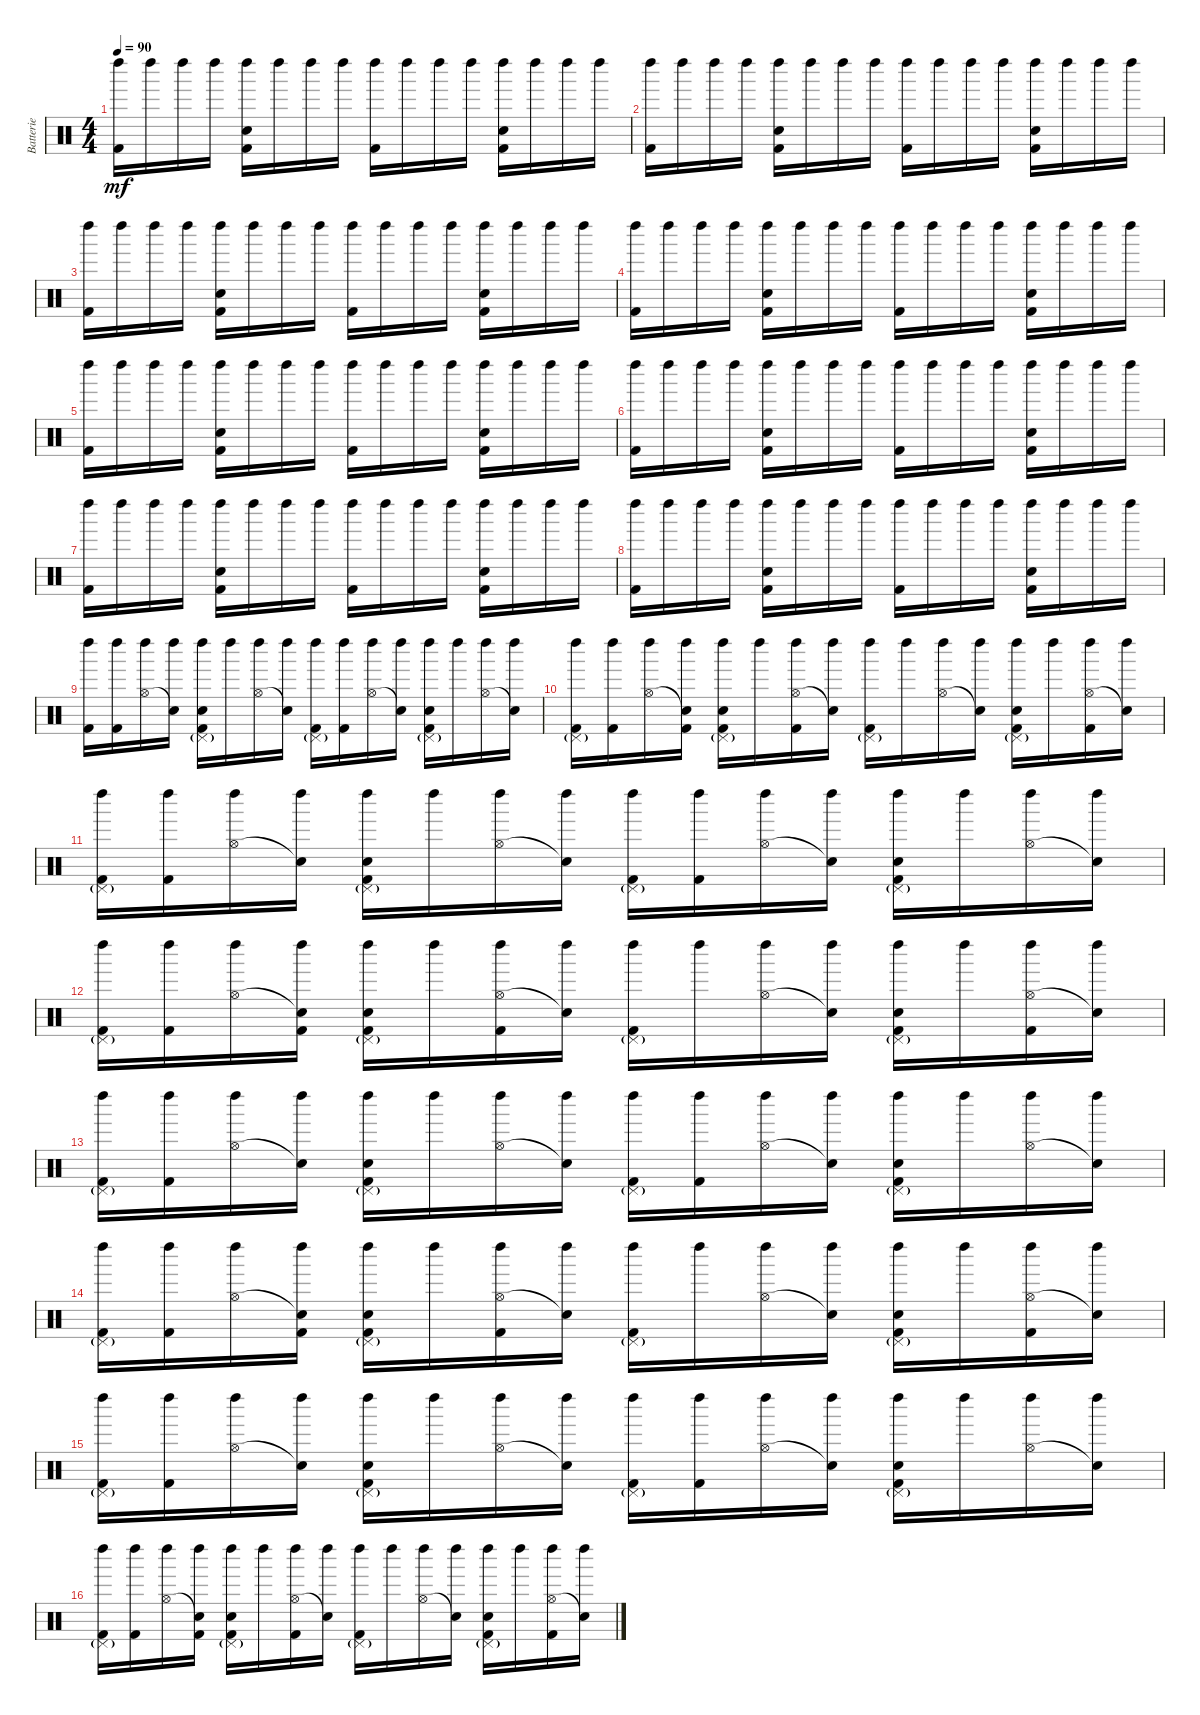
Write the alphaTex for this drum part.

\track ("Batterie" "Batterie") {instrument percussion}
\staff {score}
\articulation defaults
\ts (4 4)
\tempo 90
\clef neutral
\ks c
("Left Maraca (hit)" "Kick (hit) 2").16{dy mf} "Left Maraca (hit)".16 "Left Maraca (hit)".16 "Left Maraca (hit)".16 ("Left Maraca (hit)" "Snare (hit) 2" "Kick (hit) 2").16 "Left Maraca (hit)".16 "Left Maraca (hit)".16 "Left Maraca (hit)".16 ("Left Maraca (hit)" "Kick (hit) 2").16 "Left Maraca (hit)".16 "Left Maraca (hit)".16 "Left Maraca (hit)".16 ("Left Maraca (hit)" "Snare (hit) 2" "Kick (hit) 2").16 "Left Maraca (hit)".16 "Left Maraca (hit)".16 "Left Maraca (hit)".16 |
("Left Maraca (hit)" "Kick (hit) 2").16 "Left Maraca (hit)".16 "Left Maraca (hit)".16 "Left Maraca (hit)".16 ("Left Maraca (hit)" "Snare (hit) 2" "Kick (hit) 2").16 "Left Maraca (hit)".16 "Left Maraca (hit)".16 "Left Maraca (hit)".16 ("Left Maraca (hit)" "Kick (hit) 2").16 "Left Maraca (hit)".16 "Left Maraca (hit)".16 "Left Maraca (hit)".16 ("Left Maraca (hit)" "Snare (hit) 2" "Kick (hit) 2").16 "Left Maraca (hit)".16 "Left Maraca (hit)".16 "Left Maraca (hit)".16 |
("Left Maraca (hit)" "Kick (hit) 2").16 "Left Maraca (hit)".16 "Left Maraca (hit)".16 "Left Maraca (hit)".16 ("Left Maraca (hit)" "Snare (hit) 2" "Kick (hit) 2").16 "Left Maraca (hit)".16 "Left Maraca (hit)".16 "Left Maraca (hit)".16 ("Left Maraca (hit)" "Kick (hit) 2").16 "Left Maraca (hit)".16 "Left Maraca (hit)".16 "Left Maraca (hit)".16 ("Left Maraca (hit)" "Snare (hit) 2" "Kick (hit) 2").16 "Left Maraca (hit)".16 "Left Maraca (hit)".16 "Left Maraca (hit)".16 |
("Left Maraca (hit)" "Kick (hit) 2").16 "Left Maraca (hit)".16 "Left Maraca (hit)".16 "Left Maraca (hit)".16 ("Left Maraca (hit)" "Snare (hit) 2" "Kick (hit) 2").16 "Left Maraca (hit)".16 "Left Maraca (hit)".16 "Left Maraca (hit)".16 ("Left Maraca (hit)" "Kick (hit) 2").16 "Left Maraca (hit)".16 "Left Maraca (hit)".16 "Left Maraca (hit)".16 ("Left Maraca (hit)" "Snare (hit) 2" "Kick (hit) 2").16 "Left Maraca (hit)".16 "Left Maraca (hit)".16 "Left Maraca (hit)".16 |
("Left Maraca (hit)" "Kick (hit) 2").16 "Left Maraca (hit)".16 "Left Maraca (hit)".16 "Left Maraca (hit)".16 ("Left Maraca (hit)" "Snare (hit) 2" "Kick (hit) 2").16 "Left Maraca (hit)".16 "Left Maraca (hit)".16 "Left Maraca (hit)".16 ("Left Maraca (hit)" "Kick (hit) 2").16 "Left Maraca (hit)".16 "Left Maraca (hit)".16 "Left Maraca (hit)".16 ("Left Maraca (hit)" "Snare (hit) 2" "Kick (hit) 2").16 "Left Maraca (hit)".16 "Left Maraca (hit)".16 "Left Maraca (hit)".16 |
("Left Maraca (hit)" "Kick (hit) 2").16 "Left Maraca (hit)".16 "Left Maraca (hit)".16 "Left Maraca (hit)".16 ("Left Maraca (hit)" "Snare (hit) 2" "Kick (hit) 2").16 "Left Maraca (hit)".16 "Left Maraca (hit)".16 "Left Maraca (hit)".16 ("Left Maraca (hit)" "Kick (hit) 2").16 "Left Maraca (hit)".16 "Left Maraca (hit)".16 "Left Maraca (hit)".16 ("Left Maraca (hit)" "Snare (hit) 2" "Kick (hit) 2").16 "Left Maraca (hit)".16 "Left Maraca (hit)".16 "Left Maraca (hit)".16 |
("Left Maraca (hit)" "Kick (hit) 2").16 "Left Maraca (hit)".16 "Left Maraca (hit)".16 "Left Maraca (hit)".16 ("Left Maraca (hit)" "Snare (hit) 2" "Kick (hit) 2").16 "Left Maraca (hit)".16 "Left Maraca (hit)".16 "Left Maraca (hit)".16 ("Left Maraca (hit)" "Kick (hit) 2").16 "Left Maraca (hit)".16 "Left Maraca (hit)".16 "Left Maraca (hit)".16 ("Left Maraca (hit)" "Snare (hit) 2" "Kick (hit) 2").16 "Left Maraca (hit)".16 "Left Maraca (hit)".16 "Left Maraca (hit)".16 |
("Left Maraca (hit)" "Kick (hit) 2").16 "Left Maraca (hit)".16 "Left Maraca (hit)".16 "Left Maraca (hit)".16 ("Left Maraca (hit)" "Snare (hit) 2" "Kick (hit) 2").16 "Left Maraca (hit)".16 "Left Maraca (hit)".16 "Left Maraca (hit)".16 ("Left Maraca (hit)" "Kick (hit) 2").16 "Left Maraca (hit)".16 "Left Maraca (hit)".16 "Left Maraca (hit)".16 ("Left Maraca (hit)" "Snare (hit) 2" "Kick (hit) 2").16 "Left Maraca (hit)".16 "Left Maraca (hit)".16 "Left Maraca (hit)".16 |
("Left Maraca (hit)" "Kick (hit) 2").16 ("Left Maraca (hit)" "Kick (hit) 2").16 ("Hi-Hat (open)" "Left Maraca (hit)").16 ("Snare (hit)"{t} "Left Maraca (hit)").16 ("Pedal Hi-Hat (hit)"{g} "Left Maraca (hit)" "Snare (hit) 2" "Kick (hit) 2").16 "Left Maraca (hit)".16 ("Hi-Hat (open)" "Left Maraca (hit)").16 ("Snare (hit)"{t} "Left Maraca (hit)").16 ("Pedal Hi-Hat (hit)"{g} "Left Maraca (hit)" "Kick (hit) 2").16 ("Left Maraca (hit)" "Kick (hit) 2").16 ("Hi-Hat (open)" "Left Maraca (hit)").16 ("Snare (hit)"{t} "Left Maraca (hit)").16 ("Pedal Hi-Hat (hit)"{g} "Left Maraca (hit)" "Snare (hit) 2" "Kick (hit) 2").16 "Left Maraca (hit)".16 ("Hi-Hat (open)" "Left Maraca (hit)").16 ("Snare (hit)"{t} "Left Maraca (hit)").16 |
("Pedal Hi-Hat (hit)"{g} "Left Maraca (hit)" "Kick (hit) 2").16 ("Left Maraca (hit)" "Kick (hit) 2").16 ("Hi-Hat (open)" "Left Maraca (hit)").16 ("Snare (hit)"{t} "Left Maraca (hit)" "Kick (hit) 2").16 ("Pedal Hi-Hat (hit)"{g} "Left Maraca (hit)" "Snare (hit) 2" "Kick (hit) 2").16 "Left Maraca (hit)".16 ("Hi-Hat (open)" "Left Maraca (hit)" "Kick (hit) 2").16 ("Snare (hit)"{t} "Left Maraca (hit)").16 ("Pedal Hi-Hat (hit)"{g} "Left Maraca (hit)" "Kick (hit) 2").16 "Left Maraca (hit)".16 ("Hi-Hat (open)" "Left Maraca (hit)").16 ("Snare (hit)"{t} "Left Maraca (hit)").16 ("Pedal Hi-Hat (hit)"{g} "Left Maraca (hit)" "Snare (hit) 2" "Kick (hit) 2").16 "Left Maraca (hit)".16 ("Hi-Hat (open)" "Left Maraca (hit)" "Kick (hit) 2").16 ("Snare (hit)"{t} "Left Maraca (hit)").16 |
("Pedal Hi-Hat (hit)"{g} "Left Maraca (hit)" "Kick (hit) 2").16 ("Left Maraca (hit)" "Kick (hit) 2").16 ("Hi-Hat (open)" "Left Maraca (hit)").16 ("Snare (hit)"{t} "Left Maraca (hit)").16 ("Pedal Hi-Hat (hit)"{g} "Left Maraca (hit)" "Snare (hit) 2" "Kick (hit) 2").16 "Left Maraca (hit)".16 ("Hi-Hat (open)" "Left Maraca (hit)").16 ("Snare (hit)"{t} "Left Maraca (hit)").16 ("Pedal Hi-Hat (hit)"{g} "Left Maraca (hit)" "Kick (hit) 2").16 ("Left Maraca (hit)" "Kick (hit) 2").16 ("Hi-Hat (open)" "Left Maraca (hit)").16 ("Snare (hit)"{t} "Left Maraca (hit)").16 ("Pedal Hi-Hat (hit)"{g} "Left Maraca (hit)" "Snare (hit) 2" "Kick (hit) 2").16 "Left Maraca (hit)".16 ("Hi-Hat (open)" "Left Maraca (hit)").16 ("Snare (hit)"{t} "Left Maraca (hit)").16 |
("Pedal Hi-Hat (hit)"{g} "Left Maraca (hit)" "Kick (hit) 2").16 ("Left Maraca (hit)" "Kick (hit) 2").16 ("Hi-Hat (open)" "Left Maraca (hit)").16 ("Snare (hit)"{t} "Left Maraca (hit)" "Kick (hit) 2").16 ("Pedal Hi-Hat (hit)"{g} "Left Maraca (hit)" "Snare (hit) 2" "Kick (hit) 2").16 "Left Maraca (hit)".16 ("Hi-Hat (open)" "Left Maraca (hit)" "Kick (hit) 2").16 ("Snare (hit)"{t} "Left Maraca (hit)").16 ("Pedal Hi-Hat (hit)"{g} "Left Maraca (hit)" "Kick (hit) 2").16 "Left Maraca (hit)".16 ("Hi-Hat (open)" "Left Maraca (hit)").16 ("Snare (hit)"{t} "Left Maraca (hit)").16 ("Pedal Hi-Hat (hit)"{g} "Left Maraca (hit)" "Snare (hit) 2" "Kick (hit) 2").16 "Left Maraca (hit)".16 ("Hi-Hat (open)" "Left Maraca (hit)" "Kick (hit) 2").16 ("Snare (hit)"{t} "Left Maraca (hit)").16 |
("Pedal Hi-Hat (hit)"{g} "Left Maraca (hit)" "Kick (hit) 2").16 ("Left Maraca (hit)" "Kick (hit) 2").16 ("Hi-Hat (open)" "Left Maraca (hit)").16 ("Snare (hit)"{t} "Left Maraca (hit)").16 ("Pedal Hi-Hat (hit)"{g} "Left Maraca (hit)" "Snare (hit) 2" "Kick (hit) 2").16 "Left Maraca (hit)".16 ("Hi-Hat (open)" "Left Maraca (hit)").16 ("Snare (hit)"{t} "Left Maraca (hit)").16 ("Pedal Hi-Hat (hit)"{g} "Left Maraca (hit)" "Kick (hit) 2").16 ("Left Maraca (hit)" "Kick (hit) 2").16 ("Hi-Hat (open)" "Left Maraca (hit)").16 ("Snare (hit)"{t} "Left Maraca (hit)").16 ("Pedal Hi-Hat (hit)"{g} "Left Maraca (hit)" "Snare (hit) 2" "Kick (hit) 2").16 "Left Maraca (hit)".16 ("Hi-Hat (open)" "Left Maraca (hit)").16 ("Snare (hit)"{t} "Left Maraca (hit)").16 |
("Pedal Hi-Hat (hit)"{g} "Left Maraca (hit)" "Kick (hit) 2").16 ("Left Maraca (hit)" "Kick (hit) 2").16 ("Hi-Hat (open)" "Left Maraca (hit)").16 ("Snare (hit)"{t} "Left Maraca (hit)" "Kick (hit) 2").16 ("Pedal Hi-Hat (hit)"{g} "Left Maraca (hit)" "Snare (hit) 2" "Kick (hit) 2").16 "Left Maraca (hit)".16 ("Hi-Hat (open)" "Left Maraca (hit)" "Kick (hit) 2").16 ("Snare (hit)"{t} "Left Maraca (hit)").16 ("Pedal Hi-Hat (hit)"{g} "Left Maraca (hit)" "Kick (hit) 2").16 "Left Maraca (hit)".16 ("Hi-Hat (open)" "Left Maraca (hit)").16 ("Snare (hit)"{t} "Left Maraca (hit)").16 ("Pedal Hi-Hat (hit)"{g} "Left Maraca (hit)" "Snare (hit) 2" "Kick (hit) 2").16 "Left Maraca (hit)".16 ("Hi-Hat (open)" "Left Maraca (hit)" "Kick (hit) 2").16 ("Snare (hit)"{t} "Left Maraca (hit)").16 |
("Pedal Hi-Hat (hit)"{g} "Left Maraca (hit)" "Kick (hit) 2").16 ("Left Maraca (hit)" "Kick (hit) 2").16 ("Hi-Hat (open)" "Left Maraca (hit)").16 ("Snare (hit)"{t} "Left Maraca (hit)").16 ("Pedal Hi-Hat (hit)"{g} "Left Maraca (hit)" "Snare (hit) 2" "Kick (hit) 2").16 "Left Maraca (hit)".16 ("Hi-Hat (open)" "Left Maraca (hit)").16 ("Snare (hit)"{t} "Left Maraca (hit)").16 ("Pedal Hi-Hat (hit)"{g} "Left Maraca (hit)" "Kick (hit) 2").16 ("Left Maraca (hit)" "Kick (hit) 2").16 ("Hi-Hat (open)" "Left Maraca (hit)").16 ("Snare (hit)"{t} "Left Maraca (hit)").16 ("Pedal Hi-Hat (hit)"{g} "Left Maraca (hit)" "Snare (hit) 2" "Kick (hit) 2").16 "Left Maraca (hit)".16 ("Hi-Hat (open)" "Left Maraca (hit)").16 ("Snare (hit)"{t} "Left Maraca (hit)").16 |
("Pedal Hi-Hat (hit)"{g} "Left Maraca (hit)" "Kick (hit) 2").16 ("Left Maraca (hit)" "Kick (hit) 2").16 ("Hi-Hat (open)" "Left Maraca (hit)").16 ("Snare (hit)"{t} "Left Maraca (hit)" "Kick (hit) 2").16 ("Pedal Hi-Hat (hit)"{g} "Left Maraca (hit)" "Snare (hit) 2" "Kick (hit) 2").16 "Left Maraca (hit)".16 ("Hi-Hat (open)" "Left Maraca (hit)" "Kick (hit) 2").16 ("Snare (hit)"{t} "Left Maraca (hit)").16 ("Pedal Hi-Hat (hit)"{g} "Left Maraca (hit)" "Kick (hit) 2").16 "Left Maraca (hit)".16 ("Hi-Hat (open)" "Left Maraca (hit)").16 ("Snare (hit)"{t} "Left Maraca (hit)").16 ("Pedal Hi-Hat (hit)"{g} "Left Maraca (hit)" "Snare (hit) 2" "Kick (hit) 2").16 "Left Maraca (hit)".16 ("Hi-Hat (open)" "Left Maraca (hit)" "Kick (hit) 2").16 ("Snare (hit)"{t} "Left Maraca (hit)").16
